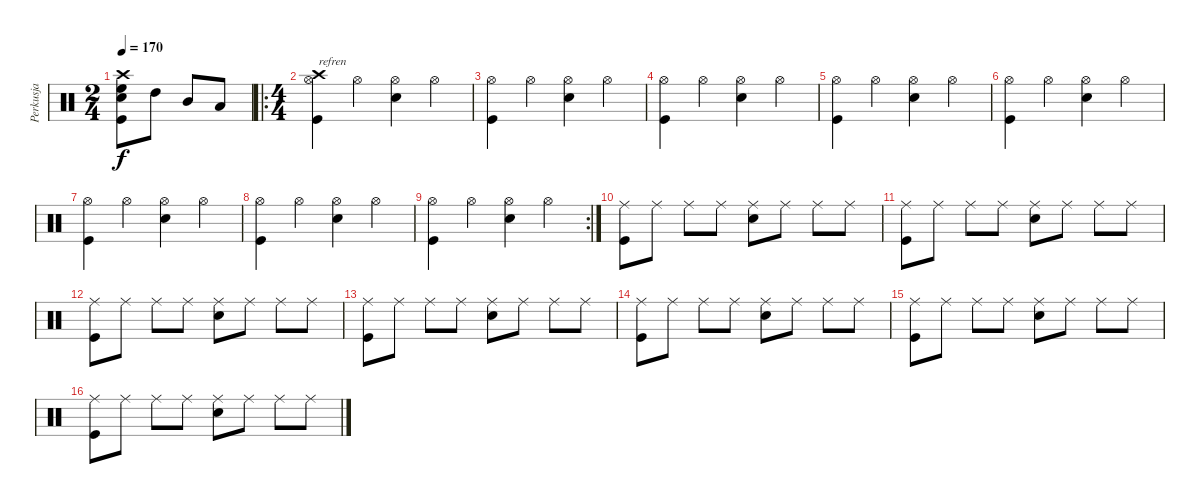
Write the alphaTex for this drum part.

\track ("Perkusja" "Perkusja") {instrument percussion}
\staff {score}
\articulation defaults
\ts (2 4)
\tempo 170
\clef neutral
\ks c
("Crash high (hit)" "High Floor Tom (hit)" "Electric Snare (hit)" "Kick (hit)").8{dy f} "High Tom (hit)".8 "Mid Tom (hit)".8 "Low Tom (hit)".8 |
\ro
\ts (4 4)
("Hi-Hat (open)" "Crash high (hit)" "Kick (hit)").4{txt "refren"} "Hi-Hat (open)".4 ("Hi-Hat (open)" "Electric Snare (hit)").4 "Hi-Hat (open)".4 |
("Hi-Hat (open)" "Kick (hit)").4 "Hi-Hat (open)".4 ("Hi-Hat (open)" "Electric Snare (hit)").4 "Hi-Hat (open)".4 |
("Hi-Hat (open)" "Kick (hit)").4 "Hi-Hat (open)".4 ("Hi-Hat (open)" "Electric Snare (hit)").4 "Hi-Hat (open)".4 |
("Hi-Hat (open)" "Kick (hit)").4 "Hi-Hat (open)".4 ("Hi-Hat (open)" "Electric Snare (hit)").4 "Hi-Hat (open)".4 |
("Hi-Hat (open)" "Kick (hit)").4 "Hi-Hat (open)".4 ("Hi-Hat (open)" "Electric Snare (hit)").4 "Hi-Hat (open)".4 |
("Hi-Hat (open)" "Kick (hit)").4 "Hi-Hat (open)".4 ("Hi-Hat (open)" "Electric Snare (hit)").4 "Hi-Hat (open)".4 |
("Hi-Hat (open)" "Kick (hit)").4 "Hi-Hat (open)".4 ("Hi-Hat (open)" "Electric Snare (hit)").4 "Hi-Hat (open)".4 |
\rc 2
("Hi-Hat (open)" "Kick (hit)").4 "Hi-Hat (open)".4 ("Hi-Hat (open)" "Electric Snare (hit)").4 "Hi-Hat (open)".4 |
("Ride (middle)" "Kick (hit)").8 "Ride (middle)".8 "Ride (middle)".8 "Ride (middle)".8 ("Ride (middle)" "Electric Snare (hit)").8 "Ride (middle)".8 "Ride (middle)".8 "Ride (middle)".8 |
("Ride (middle)" "Kick (hit)").8 "Ride (middle)".8 "Ride (middle)".8 "Ride (middle)".8 ("Ride (middle)" "Electric Snare (hit)").8 "Ride (middle)".8 "Ride (middle)".8 "Ride (middle)".8 |
("Ride (middle)" "Kick (hit)").8 "Ride (middle)".8 "Ride (middle)".8 "Ride (middle)".8 ("Ride (middle)" "Electric Snare (hit)").8 "Ride (middle)".8 "Ride (middle)".8 "Ride (middle)".8 |
("Ride (middle)" "Kick (hit)").8 "Ride (middle)".8 "Ride (middle)".8 "Ride (middle)".8 ("Ride (middle)" "Electric Snare (hit)").8 "Ride (middle)".8 "Ride (middle)".8 "Ride (middle)".8 |
("Ride (middle)" "Kick (hit)").8 "Ride (middle)".8 "Ride (middle)".8 "Ride (middle)".8 ("Ride (middle)" "Electric Snare (hit)").8 "Ride (middle)".8 "Ride (middle)".8 "Ride (middle)".8 |
("Ride (middle)" "Kick (hit)").8 "Ride (middle)".8 "Ride (middle)".8 "Ride (middle)".8 ("Ride (middle)" "Electric Snare (hit)").8 "Ride (middle)".8 "Ride (middle)".8 "Ride (middle)".8 |
("Ride (middle)" "Kick (hit)").8 "Ride (middle)".8 "Ride (middle)".8 "Ride (middle)".8 ("Ride (middle)" "Electric Snare (hit)").8 "Ride (middle)".8 "Ride (middle)".8 "Ride (middle)".8
